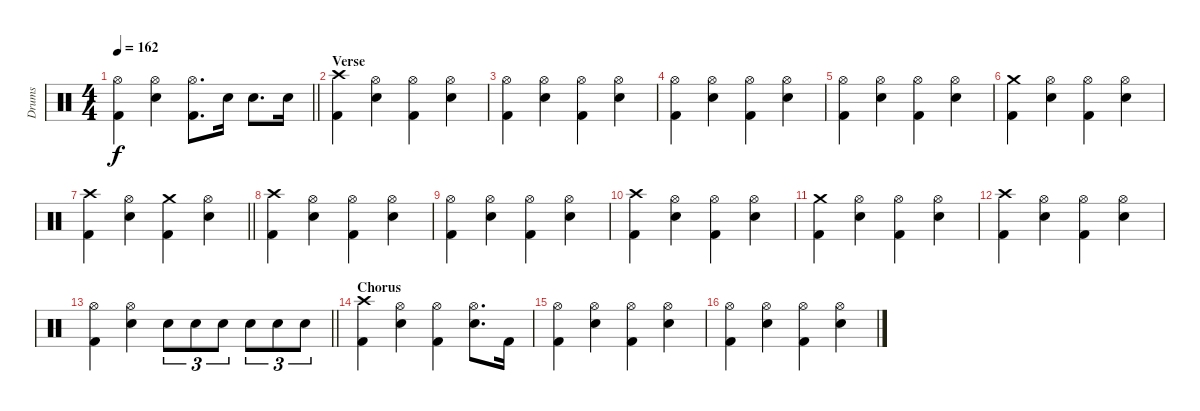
\track ("Drums" "Drums") {instrument percussion}
\staff {score}
\articulation defaults
\ts (4 4)
\tempo 162
\clef neutral
\barLineRight lightlight
\ks c
("Hi-Hat (open)" "Kick (hit) 2").4{dy f} ("Hi-Hat (open)" "Electric Snare (hit)").4 ("Hi-Hat (open)" "Kick (hit) 2").8{d} "Electric Snare (hit)".16 "Electric Snare (hit)".8{d} "Electric Snare (hit)".16 |
\section ("" "Verse")
("Crash high (hit)" "Kick (hit) 2").4 ("Hi-Hat (open)" "Electric Snare (hit)").4 ("Hi-Hat (open)" "Kick (hit) 2").4 ("Hi-Hat (open)" "Electric Snare (hit)").4 |
("Hi-Hat (open)" "Kick (hit) 2").4 ("Hi-Hat (open)" "Electric Snare (hit)").4 ("Hi-Hat (open)" "Kick (hit) 2").4 ("Hi-Hat (open)" "Electric Snare (hit)").4 |
("Hi-Hat (open)" "Kick (hit) 2").4 ("Hi-Hat (open)" "Electric Snare (hit)").4 ("Hi-Hat (open)" "Kick (hit) 2").4 ("Hi-Hat (open)" "Electric Snare (hit)").4 |
("Hi-Hat (open)" "Kick (hit) 2").4 ("Hi-Hat (open)" "Electric Snare (hit)").4 ("Hi-Hat (open)" "Kick (hit) 2").4 ("Hi-Hat (open)" "Electric Snare (hit)").4 |
("Crash medium (hit)" "Kick (hit) 2").4 ("Hi-Hat (open)" "Electric Snare (hit)").4 ("Hi-Hat (open)" "Kick (hit) 2").4 ("Hi-Hat (open)" "Electric Snare (hit)").4 |
\barLineRight lightlight
("Crash high (hit)" "Kick (hit) 2").4 ("Hi-Hat (open)" "Electric Snare (hit)").4 ("Crash medium (hit)" "Kick (hit) 2").4 ("Hi-Hat (open)" "Electric Snare (hit)").4 |
("Crash high (hit)" "Kick (hit) 2").4 ("Hi-Hat (open)" "Electric Snare (hit)").4 ("Hi-Hat (open)" "Kick (hit) 2").4 ("Hi-Hat (open)" "Electric Snare (hit)").4 |
("Hi-Hat (open)" "Kick (hit) 2").4 ("Hi-Hat (open)" "Electric Snare (hit)").4 ("Hi-Hat (open)" "Kick (hit) 2").4 ("Hi-Hat (open)" "Electric Snare (hit)").4 |
("Crash high (hit)" "Kick (hit) 2").4 ("Hi-Hat (open)" "Electric Snare (hit)").4 ("Hi-Hat (open)" "Kick (hit) 2").4 ("Hi-Hat (open)" "Electric Snare (hit)").4 |
("Crash medium (hit)" "Kick (hit) 2").4 ("Hi-Hat (open)" "Electric Snare (hit)").4 ("Hi-Hat (open)" "Kick (hit) 2").4 ("Hi-Hat (open)" "Electric Snare (hit)").4 |
("Crash high (hit)" "Kick (hit) 2").4 ("Hi-Hat (open)" "Electric Snare (hit)").4 ("Hi-Hat (open)" "Kick (hit) 2").4 ("Hi-Hat (open)" "Electric Snare (hit)").4 |
\barLineRight lightlight
("Hi-Hat (open)" "Kick (hit) 2").4 ("Hi-Hat (open)" "Electric Snare (hit)").4 "Electric Snare (hit)".8{tu (3 2)} "Electric Snare (hit)".8{tu (3 2)} "Electric Snare (hit)".8{tu (3 2)} "Electric Snare (hit)".8{tu (3 2)} "Electric Snare (hit)".8{tu (3 2)} "Electric Snare (hit)".8{tu (3 2)} |
\section ("" "Chorus")
("Crash high (hit)" "Kick (hit) 2").4 ("Hi-Hat (open)" "Electric Snare (hit)").4 ("Hi-Hat (open)" "Kick (hit) 2").4 ("Hi-Hat (open)" "Electric Snare (hit)").8{d} "Kick (hit) 2".16 |
("Hi-Hat (open)" "Kick (hit) 2").4 ("Hi-Hat (open)" "Electric Snare (hit)").4 ("Hi-Hat (open)" "Kick (hit) 2").4 ("Hi-Hat (open)" "Electric Snare (hit)").4 |
("Hi-Hat (open)" "Kick (hit) 2").4 ("Hi-Hat (open)" "Electric Snare (hit)").4 ("Hi-Hat (open)" "Kick (hit) 2").4 ("Hi-Hat (open)" "Electric Snare (hit)").4
